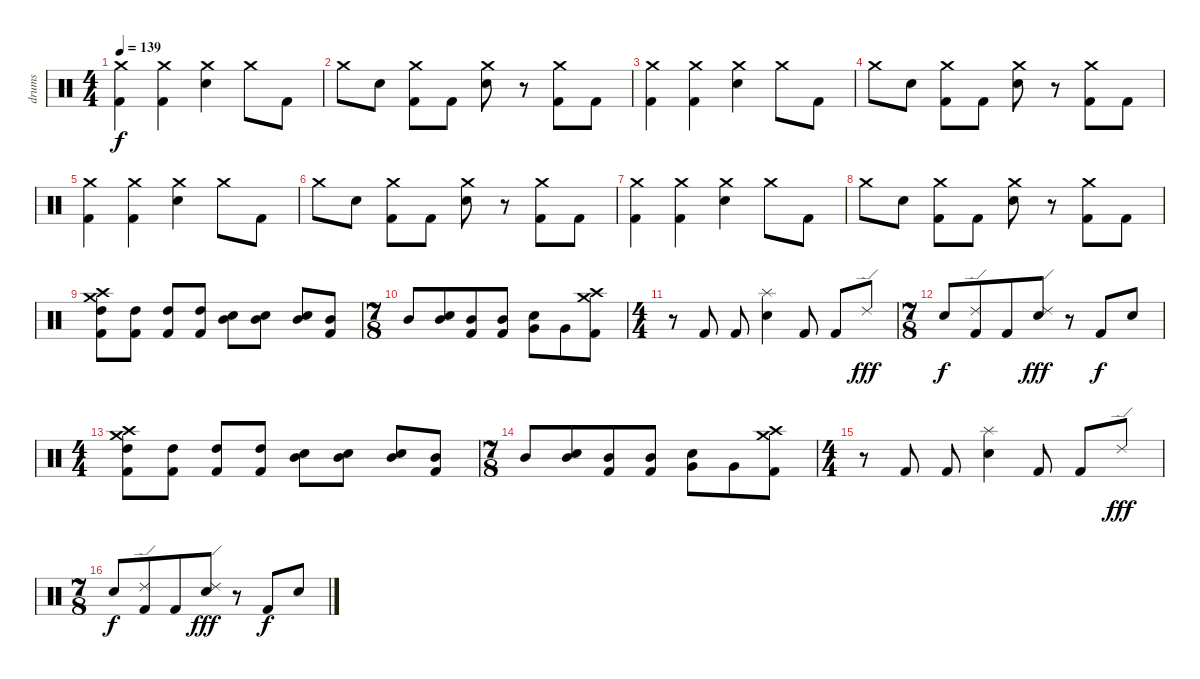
\track ("drums" "drums") {instrument percussion}
\staff {score}
\articulation defaults
\ts (4 4)
\tempo 139
\clef neutral
\ks c
("Crash medium (hit)" "Kick (hit) 2").4{dy f} ("Crash medium (hit)" "Kick (hit) 2").4 ("Crash medium (hit)" "Electric Snare (hit)").4 "Crash medium (hit)".8 "Kick (hit) 2".8 |
"Crash medium (hit)".8 "Electric Snare (hit)".8 ("Crash medium (hit)" "Kick (hit) 2").8 "Kick (hit) 2".8 ("Crash medium (hit)" "Electric Snare (hit)").8 r.8 ("Crash medium (hit)" "Kick (hit) 2").8 "Kick (hit) 2".8 |
("Crash medium (hit)" "Kick (hit) 2").4 ("Crash medium (hit)" "Kick (hit) 2").4 ("Crash medium (hit)" "Electric Snare (hit)").4 "Crash medium (hit)".8 "Kick (hit) 2".8 |
"Crash medium (hit)".8 "Electric Snare (hit)".8 ("Crash medium (hit)" "Kick (hit) 2").8 "Kick (hit) 2".8 ("Crash medium (hit)" "Electric Snare (hit)").8 r.8 ("Crash medium (hit)" "Kick (hit) 2").8 "Kick (hit) 2".8 |
("Crash medium (hit)" "Kick (hit) 2").4 ("Crash medium (hit)" "Kick (hit) 2").4 ("Crash medium (hit)" "Electric Snare (hit)").4 "Crash medium (hit)".8 "Kick (hit) 2".8 |
"Crash medium (hit)".8 "Electric Snare (hit)".8 ("Crash medium (hit)" "Kick (hit) 2").8 "Kick (hit) 2".8 ("Crash medium (hit)" "Electric Snare (hit)").8 r.8 ("Crash medium (hit)" "Kick (hit) 2").8 "Kick (hit) 2".8 |
("Crash medium (hit)" "Kick (hit) 2").4 ("Crash medium (hit)" "Kick (hit) 2").4 ("Crash medium (hit)" "Electric Snare (hit)").4 "Crash medium (hit)".8 "Kick (hit) 2".8 |
"Crash medium (hit)".8 "Electric Snare (hit)".8 ("Crash medium (hit)" "Kick (hit) 2").8 "Kick (hit) 2".8 ("Crash medium (hit)" "Electric Snare (hit)").8 r.8 ("Crash medium (hit)" "Kick (hit) 2").8 "Kick (hit) 2".8 |
("Crash medium (hit)" "Crash high (hit)" "High Tom (hit)" "Kick (hit) 2").8 ("High Tom (hit)" "Kick (hit) 2").8 ("High Tom (hit)" "Kick (hit) 2").8 ("High Tom (hit)" "Kick (hit) 2").8 ("Mid Tom (hit)" "Electric Snare (hit)").8 ("Mid Tom (hit)" "Electric Snare (hit)").8 ("Mid Tom (hit)" "Electric Snare (hit)").8 ("Mid Tom (hit)" "Kick (hit) 2").8 |
\ts (7 8)
"Mid Tom (hit)".8 ("Mid Tom (hit)" "Electric Snare (hit)").8 ("Mid Tom (hit)" "Kick (hit) 2").8 ("Mid Tom (hit)" "Kick (hit) 2").8 ("Very Low Tom (hit)" "Electric Snare (hit)").8 "Very Low Tom (hit)".8 ("Crash medium (hit)" "Crash high (hit)" "Kick (hit) 2").8 |
\ts (4 4)
r.8 "Kick (hit) 2".8 "Kick (hit) 2".8 ("Splash (hit)" "Electric Snare (hit)").4 "Kick (hit) 2".8 "Kick (hit) 2".8 "Ride (edge) 2".8{dy fff} |
\ts (7 8)
"Electric Snare (hit)".8{dy f} ("Ride (edge) 2" "Kick (hit) 2").8 "Kick (hit) 2".8 ("Ride (edge) 2" "Electric Snare (hit)").8{dy fff} r.8 "Kick (hit) 2".8{dy f} "Electric Snare (hit)".8 |
\ts (4 4)
("Crash medium (hit)" "Crash high (hit)" "High Tom (hit)" "Kick (hit) 2").8 ("High Tom (hit)" "Kick (hit) 2").8 ("High Tom (hit)" "Kick (hit) 2").8 ("High Tom (hit)" "Kick (hit) 2").8 ("Mid Tom (hit)" "Electric Snare (hit)").8 ("Mid Tom (hit)" "Electric Snare (hit)").8 ("Mid Tom (hit)" "Electric Snare (hit)").8 ("Mid Tom (hit)" "Kick (hit) 2").8 |
\ts (7 8)
"Mid Tom (hit)".8 ("Mid Tom (hit)" "Electric Snare (hit)").8 ("Mid Tom (hit)" "Kick (hit) 2").8 ("Mid Tom (hit)" "Kick (hit) 2").8 ("Very Low Tom (hit)" "Electric Snare (hit)").8 "Very Low Tom (hit)".8 ("Crash medium (hit)" "Crash high (hit)" "Kick (hit) 2").8 |
\ts (4 4)
r.8 "Kick (hit) 2".8 "Kick (hit) 2".8 ("Splash (hit)" "Electric Snare (hit)").4 "Kick (hit) 2".8 "Kick (hit) 2".8 "Ride (edge) 2".8{dy fff} |
\ts (7 8)
"Electric Snare (hit)".8{dy f} ("Ride (edge) 2" "Kick (hit) 2").8 "Kick (hit) 2".8 ("Ride (edge) 2" "Electric Snare (hit)").8{dy fff} r.8 "Kick (hit) 2".8{dy f} "Electric Snare (hit)".8
